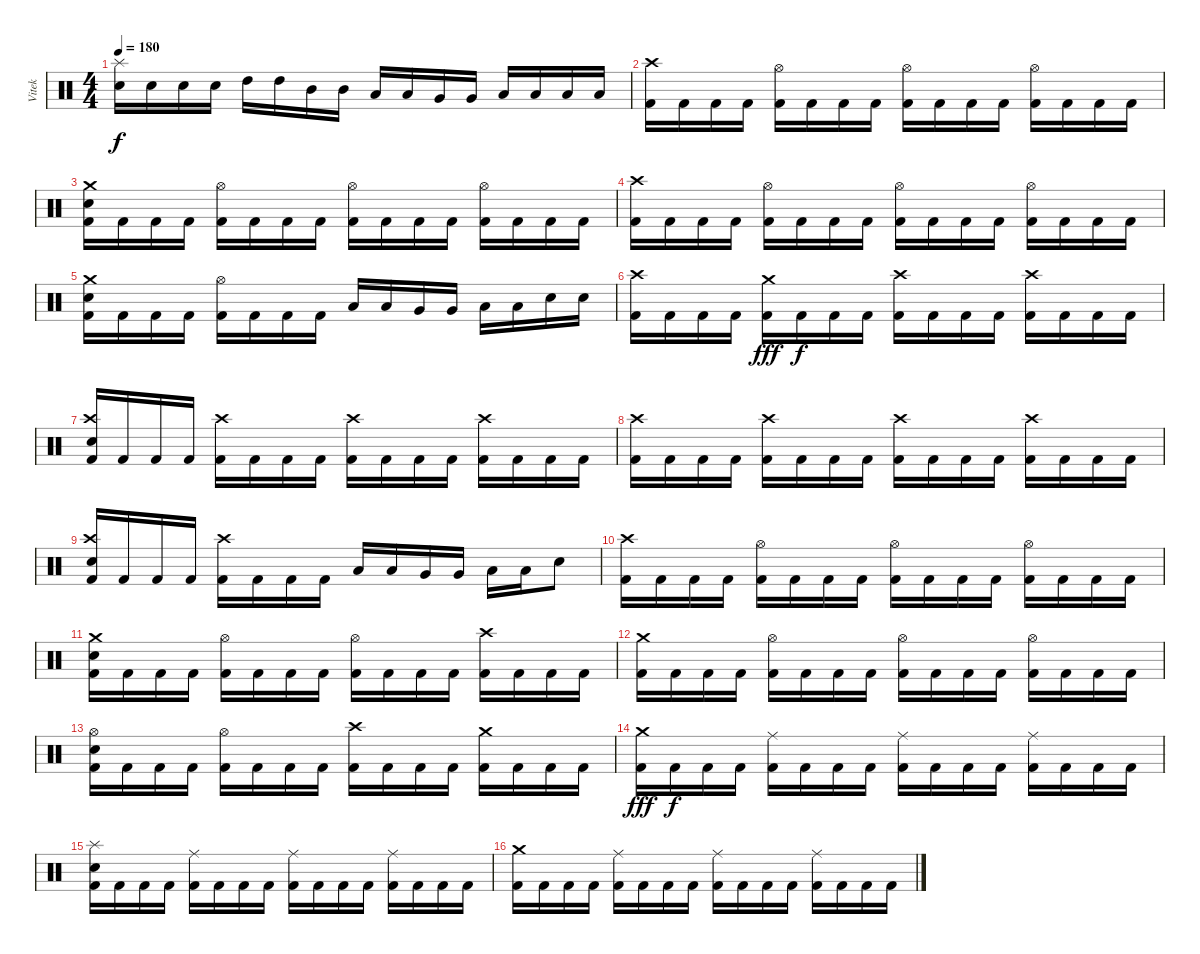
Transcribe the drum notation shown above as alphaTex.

\track ("Vitek" "Vitek") {instrument percussion}
\staff {score}
\articulation defaults
\ts (4 4)
\tempo 180
\clef neutral
\ks c
("Splash (hit)" "Electric Snare (hit)").16{dy f} "Electric Snare (hit)".16 "Electric Snare (hit)".16 "Electric Snare (hit)".16 "High Tom (hit)".16 "High Tom (hit)".16 "Mid Tom (hit)".16 "Mid Tom (hit)".16 "Low Tom (hit)".16 "Low Tom (hit)".16 "Very Low Tom (hit)".16 "Very Low Tom (hit)".16 "Low Floor Tom (hit)".16 "Low Floor Tom (hit)".16 "Low Floor Tom (hit)".16 "Low Floor Tom (hit)".16 |
("Crash high (hit)" "Kick (hit) 2").16 "Kick (hit) 2".16 "Kick (hit) 2".16 "Kick (hit) 2".16 ("Hi-Hat (open)" "Kick (hit) 2").16 "Kick (hit) 2".16 "Kick (hit) 2".16 "Kick (hit) 2".16 ("Hi-Hat (open)" "Kick (hit) 2").16 "Kick (hit) 2".16 "Kick (hit) 2".16 "Kick (hit) 2".16 ("Hi-Hat (open)" "Kick (hit) 2").16 "Kick (hit) 2".16 "Kick (hit) 2".16 "Kick (hit) 2".16 |
("Crash medium (hit)" "Electric Snare (hit)" "Kick (hit) 2").16 "Kick (hit) 2".16 "Kick (hit) 2".16 "Kick (hit) 2".16 ("Hi-Hat (open)" "Kick (hit) 2").16 "Kick (hit) 2".16 "Kick (hit) 2".16 "Kick (hit) 2".16 ("Hi-Hat (open)" "Kick (hit) 2").16 "Kick (hit) 2".16 "Kick (hit) 2".16 "Kick (hit) 2".16 ("Hi-Hat (open)" "Kick (hit) 2").16 "Kick (hit) 2".16 "Kick (hit) 2".16 "Kick (hit) 2".16 |
("Crash high (hit)" "Kick (hit) 2").16 "Kick (hit) 2".16 "Kick (hit) 2".16 "Kick (hit) 2".16 ("Hi-Hat (open)" "Kick (hit) 2").16 "Kick (hit) 2".16 "Kick (hit) 2".16 "Kick (hit) 2".16 ("Hi-Hat (open)" "Kick (hit) 2").16 "Kick (hit) 2".16 "Kick (hit) 2".16 "Kick (hit) 2".16 ("Hi-Hat (open)" "Kick (hit) 2").16 "Kick (hit) 2".16 "Kick (hit) 2".16 "Kick (hit) 2".16 |
("Crash medium (hit)" "Electric Snare (hit)" "Kick (hit) 2").16 "Kick (hit) 2".16 "Kick (hit) 2".16 "Kick (hit) 2".16 ("Hi-Hat (open)" "Kick (hit) 2").16 "Kick (hit) 2".16 "Kick (hit) 2".16 "Kick (hit) 2".16 "Low Tom (hit)".16 "Low Tom (hit)".16 "Very Low Tom (hit)".16 "Very Low Tom (hit)".16 "Low Floor Tom (hit)".16 "Low Floor Tom (hit)".16 "Electric Snare (hit)".16 "Electric Snare (hit)".16 |
("Crash high (hit)" "Kick (hit) 2").16 "Kick (hit) 2".16 "Kick (hit) 2".16 "Kick (hit) 2".16 ("Crash medium (hit)" "Kick (hit) 2").16{dy fff} "Kick (hit) 2".16{dy f} "Kick (hit) 2".16 "Kick (hit) 2".16 ("Crash high (hit)" "Kick (hit) 2").16 "Kick (hit) 2".16 "Kick (hit) 2".16 "Kick (hit) 2".16 ("Crash high (hit)" "Kick (hit) 2").16 "Kick (hit) 2".16 "Kick (hit) 2".16 "Kick (hit) 2".16 |
("Crash high (hit)" "Electric Snare (hit)" "Kick (hit) 2").16 "Kick (hit) 2".16 "Kick (hit) 2".16 "Kick (hit) 2".16 ("Crash high (hit)" "Kick (hit) 2").16 "Kick (hit) 2".16 "Kick (hit) 2".16 "Kick (hit) 2".16 ("Crash high (hit)" "Kick (hit) 2").16 "Kick (hit) 2".16 "Kick (hit) 2".16 "Kick (hit) 2".16 ("Crash high (hit)" "Kick (hit) 2").16 "Kick (hit) 2".16 "Kick (hit) 2".16 "Kick (hit) 2".16 |
("Crash high (hit)" "Kick (hit) 2").16 "Kick (hit) 2".16 "Kick (hit) 2".16 "Kick (hit) 2".16 ("Crash high (hit)" "Kick (hit) 2").16 "Kick (hit) 2".16 "Kick (hit) 2".16 "Kick (hit) 2".16 ("Crash high (hit)" "Kick (hit) 2").16 "Kick (hit) 2".16 "Kick (hit) 2".16 "Kick (hit) 2".16 ("Crash high (hit)" "Kick (hit) 2").16 "Kick (hit) 2".16 "Kick (hit) 2".16 "Kick (hit) 2".16 |
("Crash high (hit)" "Electric Snare (hit)" "Kick (hit) 2").16 "Kick (hit) 2".16 "Kick (hit) 2".16 "Kick (hit) 2".16 ("Crash high (hit)" "Kick (hit) 2").16 "Kick (hit) 2".16 "Kick (hit) 2".16 "Kick (hit) 2".16 "Low Tom (hit)".16 "Low Tom (hit)".16 "Very Low Tom (hit)".16 "Very Low Tom (hit)".16 "Low Floor Tom (hit)".16 "Low Floor Tom (hit)".16 "Electric Snare (hit)".8 |
("Crash high (hit)" "Kick (hit) 2").16 "Kick (hit) 2".16 "Kick (hit) 2".16 "Kick (hit) 2".16 ("Hi-Hat (open)" "Kick (hit) 2").16 "Kick (hit) 2".16 "Kick (hit) 2".16 "Kick (hit) 2".16 ("Hi-Hat (open)" "Kick (hit) 2").16 "Kick (hit) 2".16 "Kick (hit) 2".16 "Kick (hit) 2".16 ("Hi-Hat (open)" "Kick (hit) 2").16 "Kick (hit) 2".16 "Kick (hit) 2".16 "Kick (hit) 2".16 |
("Crash medium (hit)" "Electric Snare (hit)" "Kick (hit) 2").16 "Kick (hit) 2".16 "Kick (hit) 2".16 "Kick (hit) 2".16 ("Hi-Hat (open)" "Kick (hit) 2").16 "Kick (hit) 2".16 "Kick (hit) 2".16 "Kick (hit) 2".16 ("Hi-Hat (open)" "Kick (hit) 2").16 "Kick (hit) 2".16 "Kick (hit) 2".16 "Kick (hit) 2".16 ("Crash high (hit)" "Kick (hit) 2").16 "Kick (hit) 2".16 "Kick (hit) 2".16 "Kick (hit) 2".16 |
("Crash medium (hit)" "Kick (hit) 2").16 "Kick (hit) 2".16 "Kick (hit) 2".16 "Kick (hit) 2".16 ("Hi-Hat (open)" "Kick (hit) 2").16 "Kick (hit) 2".16 "Kick (hit) 2".16 "Kick (hit) 2".16 ("Hi-Hat (open)" "Kick (hit) 2").16 "Kick (hit) 2".16 "Kick (hit) 2".16 "Kick (hit) 2".16 ("Hi-Hat (open)" "Kick (hit) 2").16 "Kick (hit) 2".16 "Kick (hit) 2".16 "Kick (hit) 2".16 |
("Hi-Hat (open)" "Electric Snare (hit)" "Kick (hit) 2").16 "Kick (hit) 2".16 "Kick (hit) 2".16 "Kick (hit) 2".16 ("Hi-Hat (open)" "Kick (hit) 2").16 "Kick (hit) 2".16 "Kick (hit) 2".16 "Kick (hit) 2".16 ("Crash high (hit)" "Kick (hit) 2").16 "Kick (hit) 2".16 "Kick (hit) 2".16 "Kick (hit) 2".16 ("Crash medium (hit)" "Kick (hit) 2").16 "Kick (hit) 2".16 "Kick (hit) 2".16 "Kick (hit) 2".16 |
("Crash medium (hit)" "Kick (hit) 2").16{dy fff} "Kick (hit) 2".16{dy f} "Kick (hit) 2".16 "Kick (hit) 2".16 ("Ride (middle)" "Kick (hit) 2").16 "Kick (hit) 2".16 "Kick (hit) 2".16 "Kick (hit) 2".16 ("Ride (middle)" "Kick (hit) 2").16 "Kick (hit) 2".16 "Kick (hit) 2".16 "Kick (hit) 2".16 ("Ride (middle)" "Kick (hit) 2").16 "Kick (hit) 2".16 "Kick (hit) 2".16 "Kick (hit) 2".16 |
("Splash (hit)" "Electric Snare (hit)" "Kick (hit) 2").16 "Kick (hit) 2".16 "Kick (hit) 2".16 "Kick (hit) 2".16 ("Ride (middle)" "Kick (hit) 2").16 "Kick (hit) 2".16 "Kick (hit) 2".16 "Kick (hit) 2".16 ("Ride (middle)" "Kick (hit) 2").16 "Kick (hit) 2".16 "Kick (hit) 2".16 "Kick (hit) 2".16 ("Ride (middle)" "Kick (hit) 2").16 "Kick (hit) 2".16 "Kick (hit) 2".16 "Kick (hit) 2".16 |
("Crash medium (hit)" "Kick (hit) 2").16 "Kick (hit) 2".16 "Kick (hit) 2".16 "Kick (hit) 2".16 ("Ride (middle)" "Kick (hit) 2").16 "Kick (hit) 2".16 "Kick (hit) 2".16 "Kick (hit) 2".16 ("Ride (middle)" "Kick (hit) 2").16 "Kick (hit) 2".16 "Kick (hit) 2".16 "Kick (hit) 2".16 ("Ride (middle)" "Kick (hit) 2").16 "Kick (hit) 2".16 "Kick (hit) 2".16 "Kick (hit) 2".16
